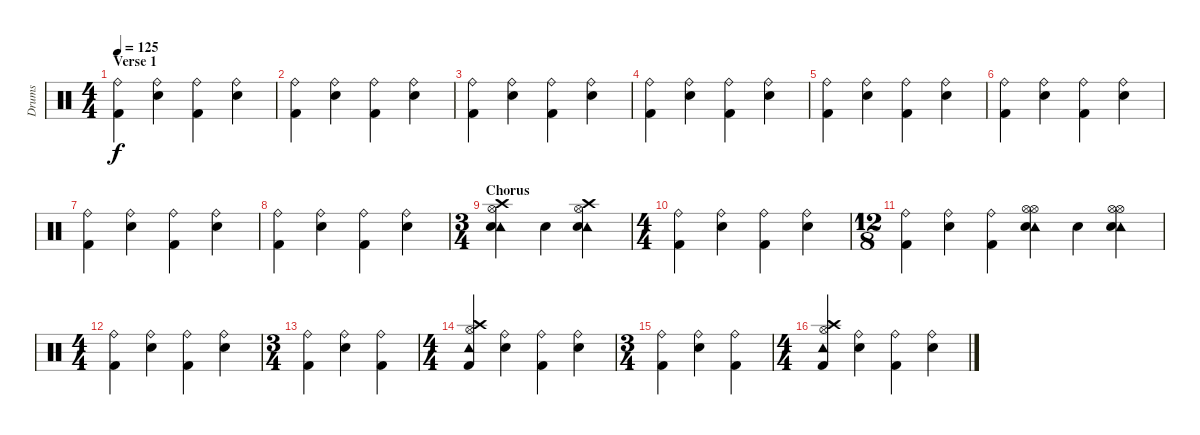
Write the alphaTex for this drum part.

\track ("Drums" "Drums") {instrument percussion}
\staff {score}
\articulation defaults
\ts (4 4)
\section ("" "Verse 1")
\tempo 125
\clef neutral
\ks c
("Ride (bell)" "Kick (hit) 2").4{dy f} ("Ride (bell)" "Snare (hit) 2").4 ("Ride (bell)" "Kick (hit) 2").4 ("Ride (bell)" "Snare (hit) 2").4 |
("Ride (bell)" "Kick (hit) 2").4 ("Ride (bell)" "Snare (hit) 2").4 ("Ride (bell)" "Kick (hit) 2").4 ("Ride (bell)" "Snare (hit) 2").4 |
("Ride (bell)" "Kick (hit) 2").4 ("Ride (bell)" "Snare (hit) 2").4 ("Ride (bell)" "Kick (hit) 2").4 ("Ride (bell)" "Snare (hit) 2").4 |
("Ride (bell)" "Kick (hit) 2").4 ("Ride (bell)" "Snare (hit) 2").4 ("Ride (bell)" "Kick (hit) 2").4 ("Ride (bell)" "Snare (hit) 2").4 |
("Ride (bell)" "Kick (hit) 2").4 ("Ride (bell)" "Snare (hit) 2").4 ("Ride (bell)" "Kick (hit) 2").4 ("Ride (bell)" "Snare (hit) 2").4 |
("Ride (bell)" "Kick (hit) 2").4 ("Ride (bell)" "Snare (hit) 2").4 ("Ride (bell)" "Kick (hit) 2").4 ("Ride (bell)" "Snare (hit) 2").4 |
("Ride (bell)" "Kick (hit) 2").4 ("Ride (bell)" "Snare (hit) 2").4 ("Ride (bell)" "Kick (hit) 2").4 ("Ride (bell)" "Snare (hit) 2").4 |
("Ride (bell)" "Kick (hit) 2").4 ("Ride (bell)" "Snare (hit) 2").4 ("Ride (bell)" "Kick (hit) 2").4 ("Ride (bell)" "Snare (hit) 2").4 |
\ts (3 4)
\section ("" "Chorus")
("Crash high (hit)" "Hi-Hat (open)" "Tambourine (hit)" "Snare (hit) 2").4 "Snare (hit) 2".4 ("Crash high (hit)" "Hi-Hat (open)" "Tambourine (hit)" "Snare (hit) 2").4 |
\ts (4 4)
("Ride (bell)" "Kick (hit) 2").4 ("Ride (bell)" "Snare (hit) 2").4 ("Ride (bell)" "Kick (hit) 2").4 ("Ride (bell)" "Snare (hit) 2").4 |
\ts (12 8)
("Ride (bell)" "Kick (hit) 2").4 ("Ride (bell)" "Snare (hit) 2").4 ("Ride (bell)" "Kick (hit) 2").4 ("Hi-Hat (open)" "Hi-Hat (open)" "Tambourine (hit)" "Snare (hit) 2").4 "Snare (hit) 2".4 ("Hi-Hat (open)" "Hi-Hat (open)" "Tambourine (hit)" "Snare (hit) 2").4 |
\ts (4 4)
("Ride (bell)" "Kick (hit) 2").4 ("Ride (bell)" "Snare (hit) 2").4 ("Ride (bell)" "Kick (hit) 2").4 ("Ride (bell)" "Snare (hit) 2").4 |
\ts (3 4)
("Ride (bell)" "Kick (hit) 2").4 ("Ride (bell)" "Snare (hit) 2").4 ("Ride (bell)" "Kick (hit) 2").4 |
\ts (4 4)
("Crash high (hit)" "Hi-Hat (open)" "Tambourine (hit)" "Kick (hit) 2").4 ("Ride (bell)" "Snare (hit) 2").4 ("Ride (bell)" "Kick (hit) 2").4 ("Ride (bell)" "Snare (hit) 2").4 |
\ts (3 4)
("Ride (bell)" "Kick (hit) 2").4 ("Ride (bell)" "Snare (hit) 2").4 ("Ride (bell)" "Kick (hit) 2").4 |
\ts (4 4)
("Crash high (hit)" "Hi-Hat (open)" "Tambourine (hit)" "Kick (hit) 2").4 ("Ride (bell)" "Snare (hit) 2").4 ("Ride (bell)" "Kick (hit) 2").4 ("Ride (bell)" "Snare (hit) 2").4
